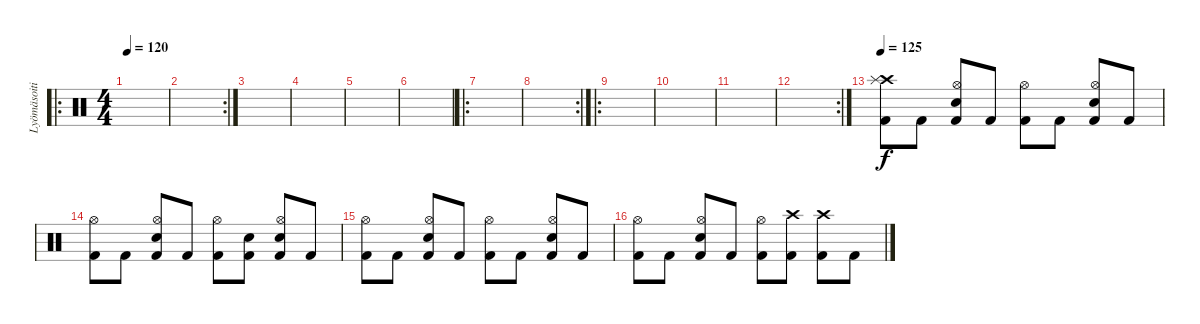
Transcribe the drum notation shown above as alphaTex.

\track ("Lyömäsoitin" "Lyömäsoiti") {instrument percussion}
\staff {score}
\articulation defaults
\ro
\ts (4 4)
\tempo 120
\clef neutral
\ks c
|
\rc 2
|
|
|
|
|
\ro
|
\rc 2
|
\ro
|
|
|
\rc 2
|
\tempo 125
("Kick (hit) 2" "Crash high (hit)" "Splash (hit)").8 "Kick (hit) 2".8 ("Kick (hit) 2" "Hi-Hat (open)" "Electric Snare (hit)").8 "Kick (hit) 2".8 ("Kick (hit) 2" "Hi-Hat (open)").8 "Kick (hit) 2".8 ("Kick (hit) 2" "Hi-Hat (open)" "Electric Snare (hit)").8 "Kick (hit) 2".8 |
("Kick (hit) 2" "Hi-Hat (open)").8 "Kick (hit) 2".8 ("Kick (hit) 2" "Hi-Hat (open)" "Electric Snare (hit)").8 "Kick (hit) 2".8 ("Kick (hit) 2" "Hi-Hat (open)").8 ("Kick (hit) 2" "Snare (hit)").8 ("Kick (hit) 2" "Hi-Hat (open)" "Electric Snare (hit)").8 "Kick (hit) 2".8 |
("Kick (hit) 2" "Hi-Hat (open)").8 "Kick (hit) 2".8 ("Kick (hit) 2" "Hi-Hat (open)" "Electric Snare (hit)").8 "Kick (hit) 2".8 ("Kick (hit) 2" "Hi-Hat (open)").8 "Kick (hit) 2".8 ("Kick (hit) 2" "Hi-Hat (open)" "Electric Snare (hit)").8 "Kick (hit) 2".8 |
("Kick (hit) 2" "Hi-Hat (open)").8 "Kick (hit) 2".8 ("Kick (hit) 2" "Hi-Hat (open)" "Electric Snare (hit)").8 "Kick (hit) 2".8 ("Kick (hit) 2" "Hi-Hat (open)").8 ("Kick (hit) 2" "Crash high (hit)").8 ("Kick (hit) 2" "Crash high (hit)").8 "Kick (hit) 2".8
